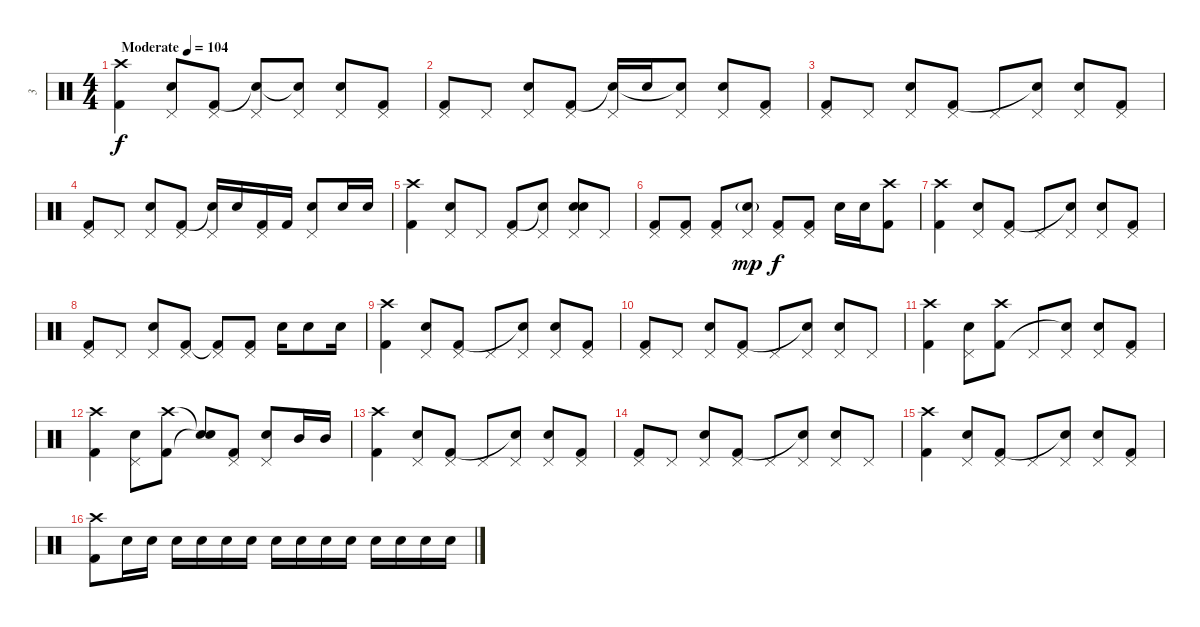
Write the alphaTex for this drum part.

\track ("3" "3") {instrument percussion}
\staff {score}
\articulation defaults
\ts (4 4)
\tempo (104 "Moderate")
\clef neutral
\ks c
("Crash high (hit)" "Kick (hit) 2").4{dy f} ("Pedal Hi-Hat (hit)" "Electric Snare (hit)").8 ("Pedal Hi-Hat (hit)" "Kick (hit) 2").8 ("Pedal Hi-Hat (hit)" "Snare (hit)"{t}).8 ("Pedal Hi-Hat (hit)" "Snare (hit)"{t}).8 ("Pedal Hi-Hat (hit)" "Electric Snare (hit)").8 ("Pedal Hi-Hat (hit)" "Kick (hit) 2").8 |
("Pedal Hi-Hat (hit)" "Kick (hit) 2").8 "Pedal Hi-Hat (hit)".8 ("Pedal Hi-Hat (hit)" "Electric Snare (hit)").8 ("Pedal Hi-Hat (hit)" "Kick (hit) 2").8 ("Pedal Hi-Hat (hit)" "Snare (hit)"{t}).16 "Electric Snare (hit)".16 ("Pedal Hi-Hat (hit)" "Snare (hit)"{t}).8 ("Pedal Hi-Hat (hit)" "Electric Snare (hit)").8 ("Pedal Hi-Hat (hit)" "Kick (hit) 2").8 |
("Pedal Hi-Hat (hit)" "Kick (hit) 2").8 "Pedal Hi-Hat (hit)".8 ("Pedal Hi-Hat (hit)" "Electric Snare (hit)").8 ("Pedal Hi-Hat (hit)" "Kick (hit) 2").8 "Pedal Hi-Hat (hit)".8 ("Pedal Hi-Hat (hit)" "Snare (hit)"{t}).8 ("Pedal Hi-Hat (hit)" "Electric Snare (hit)").8 ("Pedal Hi-Hat (hit)" "Kick (hit) 2").8 |
("Pedal Hi-Hat (hit)" "Kick (hit) 2").8 "Pedal Hi-Hat (hit)".8 ("Pedal Hi-Hat (hit)" "Electric Snare (hit)").8 ("Pedal Hi-Hat (hit)" "Kick (hit) 2").8 ("Pedal Hi-Hat (hit)" "Snare (hit)"{t}).16 "Electric Snare (hit)".16 ("Pedal Hi-Hat (hit)" "Kick (hit) 2").16 "Kick (hit) 2".16 ("Pedal Hi-Hat (hit)" "Electric Snare (hit)").8 "Electric Snare (hit)".16 "Electric Snare (hit)".16 |
("Crash high (hit)" "Kick (hit) 2").4 ("Pedal Hi-Hat (hit)" "Electric Snare (hit)").8 "Pedal Hi-Hat (hit)".8 ("Pedal Hi-Hat (hit)" "Kick (hit) 2").8 ("Pedal Hi-Hat (hit)" "Snare (hit)"{t}).8 ("Pedal Hi-Hat (hit)" "Electric Snare (hit)" "Snare (hit)").8 "Pedal Hi-Hat (hit)".8 |
("Pedal Hi-Hat (hit)" "Kick (hit) 2").8 ("Pedal Hi-Hat (hit)" "Kick (hit) 2").8 ("Pedal Hi-Hat (hit)" "Kick (hit) 2").8 ("Pedal Hi-Hat (hit)" "Electric Snare (hit)"{g}).8{dy mp} ("Pedal Hi-Hat (hit)" "Kick (hit) 2").8{dy f} ("Pedal Hi-Hat (hit)" "Kick (hit) 2").8 "Electric Snare (hit)".16 "Electric Snare (hit)".16 ("Crash high (hit)" "Kick (hit) 2").8 |
("Crash high (hit)" "Kick (hit) 2").4 ("Pedal Hi-Hat (hit)" "Electric Snare (hit)").8 ("Pedal Hi-Hat (hit)" "Kick (hit) 2").8 "Pedal Hi-Hat (hit)".8 ("Pedal Hi-Hat (hit)" "Snare (hit)"{t}).8 ("Pedal Hi-Hat (hit)" "Electric Snare (hit)").8 ("Pedal Hi-Hat (hit)" "Kick (hit) 2").8 |
("Pedal Hi-Hat (hit)" "Kick (hit) 2").8 "Pedal Hi-Hat (hit)".8 ("Pedal Hi-Hat (hit)" "Electric Snare (hit)").8 ("Pedal Hi-Hat (hit)" "Kick (hit) 2").8 ("Pedal Hi-Hat (hit)" "Kick (hit) 2"{t}).8 ("Pedal Hi-Hat (hit)" "Kick (hit) 2").8 "Electric Snare (hit)".16 "Electric Snare (hit)".8 "Electric Snare (hit)".16 |
("Crash high (hit)" "Kick (hit) 2").4 ("Pedal Hi-Hat (hit)" "Electric Snare (hit)").8 ("Pedal Hi-Hat (hit)" "Kick (hit) 2").8 "Pedal Hi-Hat (hit)".8 ("Pedal Hi-Hat (hit)" "Snare (hit)"{t}).8 ("Pedal Hi-Hat (hit)" "Electric Snare (hit)").8 ("Pedal Hi-Hat (hit)" "Kick (hit) 2").8 |
("Pedal Hi-Hat (hit)" "Kick (hit) 2").8 "Pedal Hi-Hat (hit)".8 ("Pedal Hi-Hat (hit)" "Electric Snare (hit)").8 ("Pedal Hi-Hat (hit)" "Kick (hit) 2").8 "Pedal Hi-Hat (hit)".8 ("Pedal Hi-Hat (hit)" "Snare (hit)"{t}).8 ("Pedal Hi-Hat (hit)" "Electric Snare (hit)").8 "Pedal Hi-Hat (hit)".8 |
("Crash high (hit)" "Kick (hit) 2").4 ("Pedal Hi-Hat (hit)" "Electric Snare (hit)").8 ("Crash high (hit)" "Kick (hit) 2").8 "Pedal Hi-Hat (hit)".8 ("Pedal Hi-Hat (hit)" "Snare (hit)"{t}).8 ("Pedal Hi-Hat (hit)" "Electric Snare (hit)").8 ("Pedal Hi-Hat (hit)" "Kick (hit) 2").8 |
("Crash high (hit)" "Kick (hit) 2").4 ("Pedal Hi-Hat (hit)" "Electric Snare (hit)").8 ("Crash high (hit)" "Kick (hit) 2").8 ("Snare (hit)"{t} "Snare (hit)"{t}).8 ("Pedal Hi-Hat (hit)" "Kick (hit) 2").8 ("Pedal Hi-Hat (hit)" "Electric Snare (hit)").8 "Mid Tom (hit)".16 "Mid Tom (hit)".16 |
("Crash high (hit)" "Kick (hit) 2").4 ("Pedal Hi-Hat (hit)" "Electric Snare (hit)").8 ("Pedal Hi-Hat (hit)" "Kick (hit) 2").8 "Pedal Hi-Hat (hit)".8 ("Pedal Hi-Hat (hit)" "Snare (hit)"{t}).8 ("Pedal Hi-Hat (hit)" "Electric Snare (hit)").8 ("Pedal Hi-Hat (hit)" "Kick (hit) 2").8 |
("Pedal Hi-Hat (hit)" "Kick (hit) 2").8 "Pedal Hi-Hat (hit)".8 ("Pedal Hi-Hat (hit)" "Electric Snare (hit)").8 ("Pedal Hi-Hat (hit)" "Kick (hit) 2").8 "Pedal Hi-Hat (hit)".8 ("Pedal Hi-Hat (hit)" "Snare (hit)"{t}).8 ("Pedal Hi-Hat (hit)" "Electric Snare (hit)").8 "Pedal Hi-Hat (hit)".8 |
("Crash high (hit)" "Kick (hit) 2").4 ("Pedal Hi-Hat (hit)" "Electric Snare (hit)").8 ("Pedal Hi-Hat (hit)" "Kick (hit) 2").8 "Pedal Hi-Hat (hit)".8 ("Pedal Hi-Hat (hit)" "Snare (hit)"{t}).8 ("Pedal Hi-Hat (hit)" "Electric Snare (hit)").8 ("Pedal Hi-Hat (hit)" "Kick (hit) 2").8 |
("Crash high (hit)" "Kick (hit) 2").8 "Electric Snare (hit)".16 "Electric Snare (hit)".16 "Electric Snare (hit)".16 "Electric Snare (hit)".16 "Electric Snare (hit)".16 "Electric Snare (hit)".16 "Electric Snare (hit)".16 "Electric Snare (hit)".16 "Electric Snare (hit)".16 "Electric Snare (hit)".16 "Electric Snare (hit)".16 "Electric Snare (hit)".16 "Electric Snare (hit)".16 "Electric Snare (hit)".16
